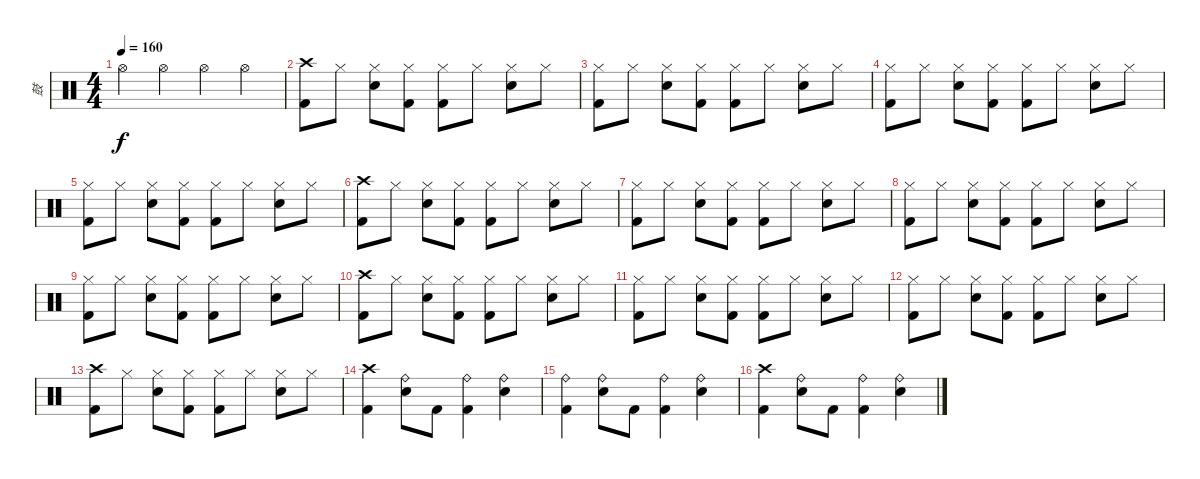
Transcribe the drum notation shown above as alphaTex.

\track ("鼓" "鼓") {instrument percussion}
\staff {score}
\articulation defaults
\ts (4 4)
\tempo 160
\clef neutral
\ks c "Hi-Hat (open)".4{dy f} "Hi-Hat (open)".4 "Hi-Hat (open)".4 "Hi-Hat (open)".4
|
("Crash high (hit)" "Kick (hit) 2").8 "Hi-Hat (closed)".8 ("Hi-Hat (closed)" "Snare (hit) 2").8 ("Hi-Hat (closed)" "Kick (hit) 2").8 ("Hi-Hat (closed)" "Kick (hit) 2").8 "Hi-Hat (closed)".8 ("Hi-Hat (closed)" "Snare (hit) 2").8 "Hi-Hat (closed)".8 |
("Hi-Hat (closed)" "Kick (hit) 2").8 "Hi-Hat (closed)".8 ("Hi-Hat (closed)" "Snare (hit) 2").8 ("Hi-Hat (closed)" "Kick (hit) 2").8 ("Hi-Hat (closed)" "Kick (hit) 2").8 "Hi-Hat (closed)".8 ("Hi-Hat (closed)" "Snare (hit) 2").8 "Hi-Hat (closed)".8 |
("Hi-Hat (closed)" "Kick (hit) 2").8 "Hi-Hat (closed)".8 ("Hi-Hat (closed)" "Snare (hit) 2").8 ("Hi-Hat (closed)" "Kick (hit) 2").8 ("Hi-Hat (closed)" "Kick (hit) 2").8 "Hi-Hat (closed)".8 ("Hi-Hat (closed)" "Snare (hit) 2").8 "Hi-Hat (closed)".8 |
("Hi-Hat (closed)" "Kick (hit) 2").8 "Hi-Hat (closed)".8 ("Hi-Hat (closed)" "Snare (hit) 2").8 ("Hi-Hat (closed)" "Kick (hit) 2").8 ("Hi-Hat (closed)" "Kick (hit) 2").8 "Hi-Hat (closed)".8 ("Hi-Hat (closed)" "Snare (hit) 2").8 "Hi-Hat (closed)".8 |
("Crash high (hit)" "Kick (hit) 2").8 "Hi-Hat (closed)".8 ("Hi-Hat (closed)" "Snare (hit) 2").8 ("Hi-Hat (closed)" "Kick (hit) 2").8 ("Hi-Hat (closed)" "Kick (hit) 2").8 "Hi-Hat (closed)".8 ("Hi-Hat (closed)" "Snare (hit) 2").8 "Hi-Hat (closed)".8 |
("Hi-Hat (closed)" "Kick (hit) 2").8 "Hi-Hat (closed)".8 ("Hi-Hat (closed)" "Snare (hit) 2").8 ("Hi-Hat (closed)" "Kick (hit) 2").8 ("Hi-Hat (closed)" "Kick (hit) 2").8 "Hi-Hat (closed)".8 ("Hi-Hat (closed)" "Snare (hit) 2").8 "Hi-Hat (closed)".8 |
("Hi-Hat (closed)" "Kick (hit) 2").8 "Hi-Hat (closed)".8 ("Hi-Hat (closed)" "Snare (hit) 2").8 ("Hi-Hat (closed)" "Kick (hit) 2").8 ("Hi-Hat (closed)" "Kick (hit) 2").8 "Hi-Hat (closed)".8 ("Hi-Hat (closed)" "Snare (hit) 2").8 "Hi-Hat (closed)".8 |
("Hi-Hat (closed)" "Kick (hit) 2").8 "Hi-Hat (closed)".8 ("Hi-Hat (closed)" "Snare (hit) 2").8 ("Hi-Hat (closed)" "Kick (hit) 2").8 ("Hi-Hat (closed)" "Kick (hit) 2").8 "Hi-Hat (closed)".8 ("Hi-Hat (closed)" "Snare (hit) 2").8 "Hi-Hat (closed)".8 |
("Crash high (hit)" "Kick (hit) 2").8 "Hi-Hat (closed)".8 ("Hi-Hat (closed)" "Snare (hit) 2").8 ("Hi-Hat (closed)" "Kick (hit) 2").8 ("Hi-Hat (closed)" "Kick (hit) 2").8 "Hi-Hat (closed)".8 ("Hi-Hat (closed)" "Snare (hit) 2").8 "Hi-Hat (closed)".8 |
("Hi-Hat (closed)" "Kick (hit) 2").8 "Hi-Hat (closed)".8 ("Hi-Hat (closed)" "Snare (hit) 2").8 ("Hi-Hat (closed)" "Kick (hit) 2").8 ("Hi-Hat (closed)" "Kick (hit) 2").8 "Hi-Hat (closed)".8 ("Hi-Hat (closed)" "Snare (hit) 2").8 "Hi-Hat (closed)".8 |
("Hi-Hat (closed)" "Kick (hit) 2").8 "Hi-Hat (closed)".8 ("Hi-Hat (closed)" "Snare (hit) 2").8 ("Hi-Hat (closed)" "Kick (hit) 2").8 ("Hi-Hat (closed)" "Kick (hit) 2").8 "Hi-Hat (closed)".8 ("Hi-Hat (closed)" "Snare (hit) 2").8 "Hi-Hat (closed)".8 |
("Crash high (hit)" "Kick (hit) 2").8 "Hi-Hat (closed)".8 ("Hi-Hat (closed)" "Snare (hit) 2").8 ("Hi-Hat (closed)" "Kick (hit) 2").8 ("Hi-Hat (closed)" "Kick (hit) 2").8 "Hi-Hat (closed)".8 ("Hi-Hat (closed)" "Snare (hit) 2").8 "Hi-Hat (closed)".8 |
("Crash high (hit)" "Kick (hit) 2").4 ("Ride (bell)" "Snare (hit) 2").8 "Kick (hit) 2".8 ("Ride (bell)" "Kick (hit) 2").4 ("Ride (bell)" "Snare (hit) 2").4 |
("Ride (bell)" "Kick (hit) 2").4 ("Ride (bell)" "Snare (hit) 2").8 "Kick (hit) 2".8 ("Ride (bell)" "Kick (hit) 2").4 ("Ride (bell)" "Snare (hit) 2").4 |
("Crash high (hit)" "Kick (hit) 2").4 ("Ride (bell)" "Snare (hit) 2").8 "Kick (hit) 2".8 ("Ride (bell)" "Kick (hit) 2").4 ("Ride (bell)" "Snare (hit) 2").4
